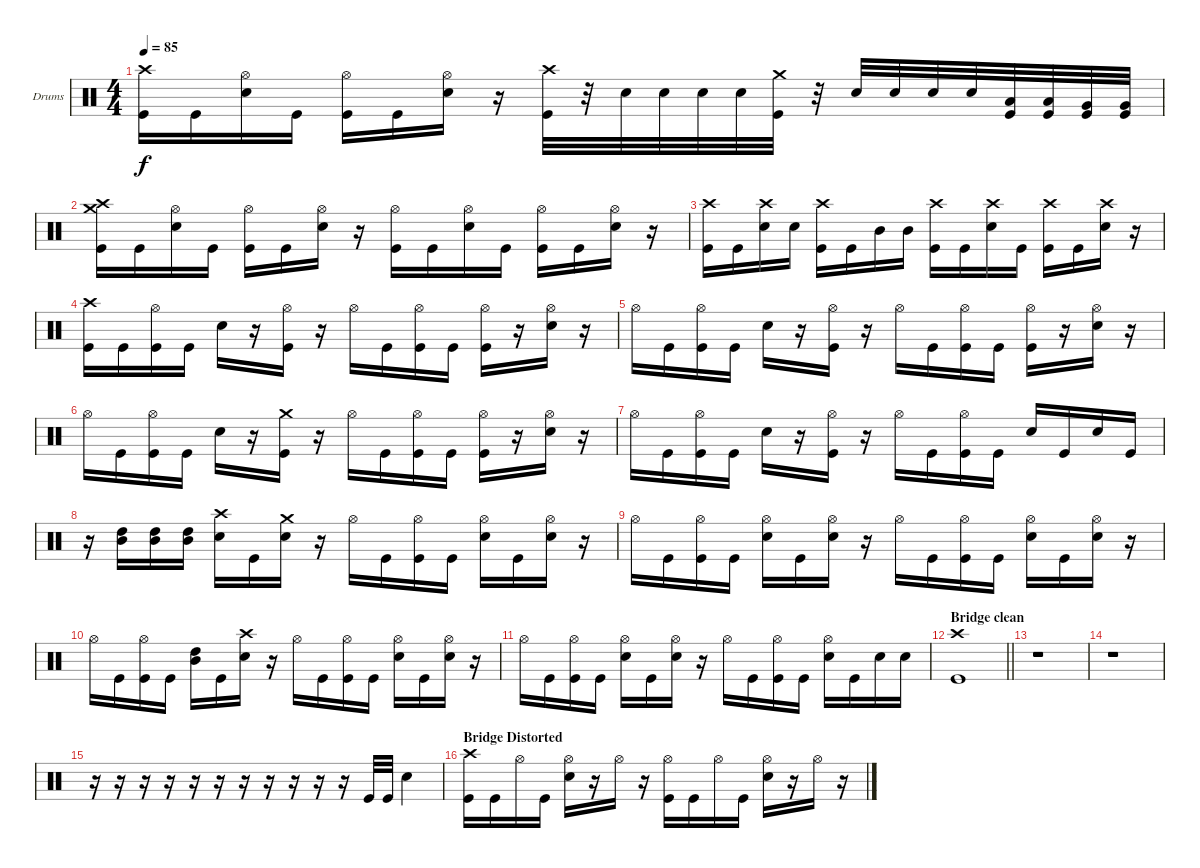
\bracketExtendMode groupsimilarinstruments
\firstSystemTrackNameOrientation horizontal
\otherSystemsTrackNameOrientation horizontal
\track ("Drumkit" "Drums") {instrument percussion}
\staff {score}
\articulation defaults
\ts (4 4)
\tempo 85
\clef neutral
\ks c
("Kick (hit)" "Crash high (hit)").16{dy f} "Kick (hit)".16 ("Snare (hit) 2" "Hi-Hat (open)").16 "Kick (hit)".16 ("Kick (hit)" "Hi-Hat (open)").16 "Kick (hit)".16 ("Snare (hit) 2" "Hi-Hat (open)").16 r.16 ("Kick (hit)" "Crash high (hit)").32 r.32 "Snare (hit) 2".32 "Snare (hit) 2".32 "Snare (hit) 2".32 "Snare (hit) 2".32 ("Kick (hit)" "Crash medium (hit)").32 r.32 "Snare (hit) 2".32 "Snare (hit) 2".32 "Snare (hit) 2".32 "Snare (hit) 2".32 ("Low Tom (hit)" "Kick (hit)").32 ("Low Tom (hit)" "Kick (hit)").32 ("Very Low Tom (hit)" "Kick (hit)").32 ("Very Low Tom (hit)" "Kick (hit)").32 |
("Kick (hit)" "Crash medium (hit)" "Crash high (hit)").16 "Kick (hit)".16 ("Snare (hit) 2" "Hi-Hat (open)").16 "Kick (hit)".16 ("Kick (hit)" "Hi-Hat (open)").16 "Kick (hit)".16 ("Snare (hit) 2" "Hi-Hat (open)").16 r.16 ("Kick (hit)" "Hi-Hat (open)").16 "Kick (hit)".16 ("Snare (hit) 2" "Hi-Hat (open)").16 "Kick (hit)".16 ("Kick (hit)" "Hi-Hat (open)").16 "Kick (hit)".16 ("Snare (hit) 2" "Hi-Hat (open)").16 r.16 |
("Kick (hit)" "Crash high (hit)").16 "Kick (hit)".16 ("Snare (hit) 2" "Crash high (hit)").16 "Snare (hit) 2".16 ("Kick (hit)" "Crash high (hit)").16 "Kick (hit)".16 "Mid Tom (hit)".16 "Mid Tom (hit)".16 ("Kick (hit)" "Crash high (hit)").16 "Kick (hit)".16 ("Snare (hit) 2" "Crash high (hit)").16 "Kick (hit)".16 ("Kick (hit)" "Crash high (hit)").16 "Kick (hit)".16 ("Snare (hit) 2" "Crash high (hit)").16 r.16 |
("Kick (hit)" "Crash high (hit)").16 "Kick (hit)".16 ("Kick (hit)" "Hi-Hat (open)").16 "Kick (hit)".16 "Snare (hit) 2".16 r.16 ("Kick (hit)" "Hi-Hat (open)").16 r.16 "Hi-Hat (open)".16 "Kick (hit)".16 ("Kick (hit)" "Hi-Hat (open)").16 "Kick (hit)".16 ("Kick (hit)" "Hi-Hat (open)").16 r.16 ("Snare (hit) 2" "Hi-Hat (open)").16 r.16 |
"Hi-Hat (open)".16 "Kick (hit)".16 ("Kick (hit)" "Hi-Hat (open)").16 "Kick (hit)".16 "Snare (hit) 2".16 r.16 ("Kick (hit)" "Hi-Hat (open)").16 r.16 "Hi-Hat (open)".16 "Kick (hit)".16 ("Kick (hit)" "Hi-Hat (open)").16 "Kick (hit)".16 ("Kick (hit)" "Hi-Hat (open)").16 r.16 ("Snare (hit) 2" "Hi-Hat (open)").16 r.16 |
"Hi-Hat (open)".16 "Kick (hit)".16 ("Kick (hit)" "Hi-Hat (open)").16 "Kick (hit)".16 "Snare (hit) 2".16 r.16 ("Kick (hit)" "Crash medium (hit)").16 r.16 "Hi-Hat (open)".16 "Kick (hit)".16 ("Kick (hit)" "Hi-Hat (open)").16 "Kick (hit)".16 ("Kick (hit)" "Hi-Hat (open)").16 r.16 ("Snare (hit) 2" "Hi-Hat (open)").16 r.16 |
"Hi-Hat (open)".16 "Kick (hit)".16 ("Kick (hit)" "Hi-Hat (open)").16 "Kick (hit)".16 "Snare (hit) 2".16 r.16 ("Kick (hit)" "Hi-Hat (open)").16 r.16 "Hi-Hat (open)".16 "Kick (hit)".16 ("Kick (hit)" "Hi-Hat (open)").16 "Kick (hit)".16 "Snare (hit) 2".16 "Kick (hit)".16 "Snare (hit) 2".16 "Kick (hit)".16 |
r.16 ("High Tom (hit)" "Mid Tom (hit)").16 ("High Tom (hit)" "Mid Tom (hit)").16 ("High Tom (hit)" "Mid Tom (hit)").16 ("Snare (hit) 2" "Crash high (hit)").16 "Kick (hit)".16 ("Snare (hit) 2" "Crash medium (hit)").16 r.16 "Hi-Hat (open)".16 "Kick (hit)".16 ("Kick (hit)" "Hi-Hat (open)").16 "Kick (hit)".16 ("Snare (hit) 2" "Hi-Hat (open)").16 "Kick (hit)".16 ("Snare (hit) 2" "Hi-Hat (open)").16 r.16 |
"Hi-Hat (open)".16 "Kick (hit)".16 ("Kick (hit)" "Hi-Hat (open)").16 "Kick (hit)".16 ("Snare (hit) 2" "Hi-Hat (open)").16 "Kick (hit)".16 ("Snare (hit) 2" "Hi-Hat (open)").16 r.16 "Hi-Hat (open)".16 "Kick (hit)".16 ("Kick (hit)" "Hi-Hat (open)").16 "Kick (hit)".16 ("Snare (hit) 2" "Hi-Hat (open)").16 "Kick (hit)".16 ("Snare (hit) 2" "Hi-Hat (open)").16 r.16 |
"Hi-Hat (open)".16 "Kick (hit)".16 ("Kick (hit)" "Hi-Hat (open)").16 "Kick (hit)".16 ("Mid Tom (hit)" "High Tom (hit)").16 "Kick (hit)".16 ("Snare (hit) 2" "Crash high (hit)").16 r.16 "Hi-Hat (open)".16 "Kick (hit)".16 ("Kick (hit)" "Hi-Hat (open)").16 "Kick (hit)".16 ("Snare (hit) 2" "Hi-Hat (open)").16 "Kick (hit)".16 ("Snare (hit) 2" "Hi-Hat (open)").16 r.16 |
"Hi-Hat (open)".16 "Kick (hit)".16 ("Kick (hit)" "Hi-Hat (open)").16 "Kick (hit)".16 ("Snare (hit) 2" "Hi-Hat (open)").16 "Kick (hit)".16 ("Snare (hit) 2" "Hi-Hat (open)").16 r.16 "Hi-Hat (open)".16 "Kick (hit)".16 ("Kick (hit)" "Hi-Hat (open)").16 "Kick (hit)".16 ("Snare (hit) 2" "Hi-Hat (open)").16 "Kick (hit)".16 "Snare (hit) 2".16 "Snare (hit) 2".16 |
\section ("" "Bridge clean")
\barLineRight lightlight
("Kick (hit)" "Crash high (hit)").1 |
r.1 |
r.1 |
r.16 r.16 r.16 r.16 r.16 r.16 r.16 r.16 r.16 r.16 r.16 "Kick (hit)".32 "Kick (hit)".32 "Snare (hit) 2".4 |
\section ("" "Bridge Distorted")
("Kick (hit)" "Crash high (hit)").16 "Kick (hit)".16 "Hi-Hat (open)".16 "Kick (hit)".16 ("Snare (hit) 2" "Hi-Hat (open)").16 r.16 "Hi-Hat (open)".16 r.16 ("Kick (hit)" "Hi-Hat (open)").16 "Kick (hit)".16 "Hi-Hat (open)".16 "Kick (hit)".16 ("Snare (hit) 2" "Hi-Hat (open)").16 r.16 "Hi-Hat (open)".16 r.16
